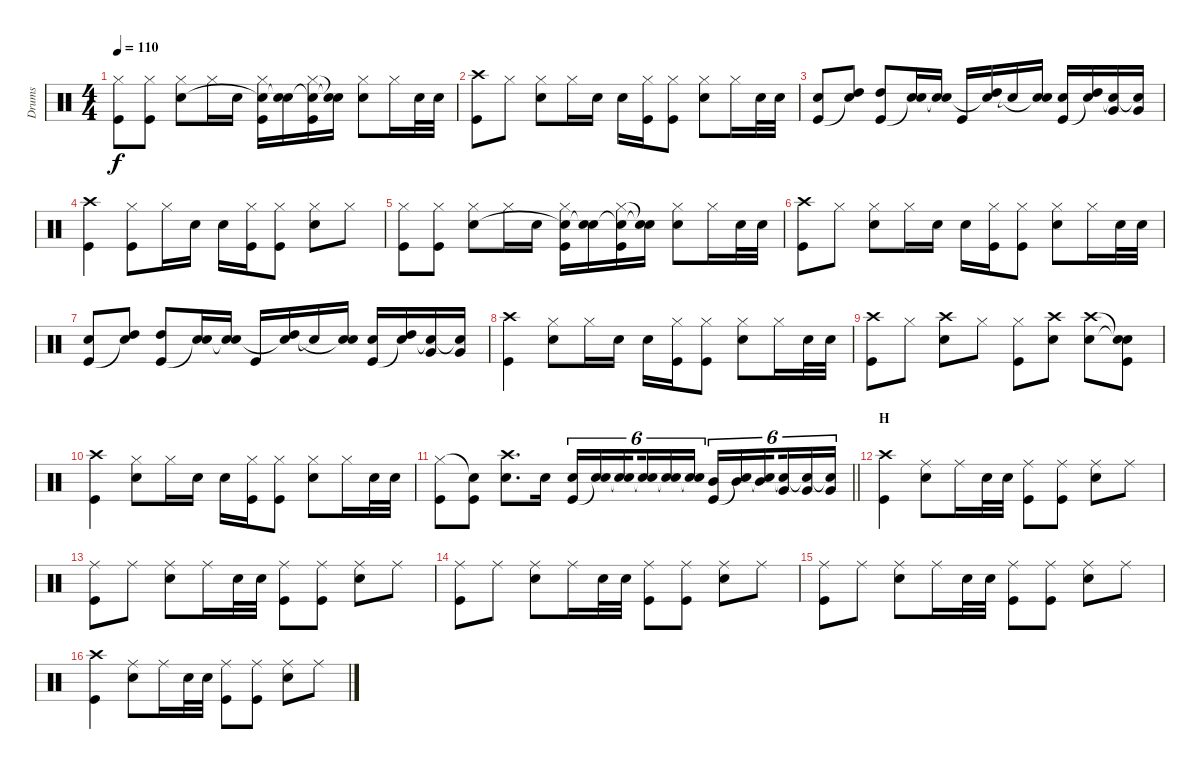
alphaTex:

\track ("Drums" "Drums") {instrument percussion}
\staff {score}
\articulation defaults
\ts (4 4)
\tempo 110
\clef neutral
\ks c
("Hi-Hat (closed)" "Kick (hit)").8{dy f} ("Hi-Hat (closed)" "Kick (hit)").8 ("Hi-Hat (closed)" "Snare (hit) 2").8 "Hi-Hat (closed)".16 "Snare (hit) 2".16 ("Hi-Hat (closed)" "Snare (hit)"{t} "Kick (hit)").16 ("Snare (hit) 2" "Snare (hit)"{t}).16 ("Hi-Hat (closed)" "Snare (hit)"{t} "Kick (hit)").16 ("Snare (hit)"{t} "Snare (hit)"{t}).16 ("Hi-Hat (closed)" "Snare (hit) 2").8 "Hi-Hat (closed)".16 "Snare (hit) 2".32 "Snare (hit) 2".32 |
("Crash high (hit)" "Kick (hit)").8 "Hi-Hat (closed)".8 ("Hi-Hat (closed)" "Snare (hit) 2").8 "Hi-Hat (closed)".16 "Snare (hit) 2".16 "Snare (hit) 2".16 ("Hi-Hat (closed)" "Kick (hit)").16 ("Hi-Hat (closed)" "Kick (hit)").8 ("Hi-Hat (closed)" "Snare (hit) 2").8 "Hi-Hat (closed)".16 "Snare (hit) 2".32 "Snare (hit) 2".32 |
("Snare (hit) 2" "Kick (hit)").8 ("High Tom (hit)" "Snare (hit)"{t}).8 ("High Tom (hit)" "Kick (hit)").8 ("Snare (hit) 2" "Snare (hit)"{t}).16 ("Snare (hit) 2" "Snare (hit)"{t}).16 "Kick (hit)".16 ("High Tom (hit)" "Snare (hit)"{t}).16 "Snare (hit)"{t}.16 ("Snare (hit) 2" "Snare (hit)"{t}).16 ("Snare (hit) 2" "Kick (hit)").16 ("High Tom (hit)" "Snare (hit)"{t}).16 ("Very Low Tom (hit)" "Snare (hit)"{t}).16 ("Very Low Tom (hit)" "Snare (hit)"{t}).16 |
("Crash high (hit)" "Kick (hit)").4 ("Hi-Hat (closed)" "Kick (hit)").8 "Hi-Hat (closed)".16 "Snare (hit) 2".16 "Snare (hit) 2".16 ("Hi-Hat (closed)" "Kick (hit)").16 ("Hi-Hat (closed)" "Kick (hit)").8 ("Hi-Hat (closed)" "Snare (hit) 2").8 "Hi-Hat (closed)".8 |
("Hi-Hat (closed)" "Kick (hit)").8 ("Hi-Hat (closed)" "Kick (hit)").8 ("Hi-Hat (closed)" "Snare (hit) 2").8 "Hi-Hat (closed)".16 "Snare (hit) 2".16 ("Hi-Hat (closed)" "Snare (hit)"{t} "Kick (hit)").16 ("Snare (hit) 2" "Snare (hit)"{t}).16 ("Hi-Hat (closed)" "Snare (hit)"{t} "Kick (hit)").16 ("Snare (hit)"{t} "Snare (hit)"{t}).16 ("Hi-Hat (closed)" "Snare (hit) 2").8 "Hi-Hat (closed)".16 "Snare (hit) 2".32 "Snare (hit) 2".32 |
("Crash high (hit)" "Kick (hit)").8 "Hi-Hat (closed)".8 ("Hi-Hat (closed)" "Snare (hit) 2").8 "Hi-Hat (closed)".16 "Snare (hit) 2".16 "Snare (hit) 2".16 ("Hi-Hat (closed)" "Kick (hit)").16 ("Hi-Hat (closed)" "Kick (hit)").8 ("Hi-Hat (closed)" "Snare (hit) 2").8 "Hi-Hat (closed)".16 "Snare (hit) 2".32 "Snare (hit) 2".32 |
("Snare (hit) 2" "Kick (hit)").8 ("High Tom (hit)" "Snare (hit)"{t}).8 ("High Tom (hit)" "Kick (hit)").8 ("Snare (hit) 2" "Snare (hit)"{t}).16 ("Snare (hit) 2" "Snare (hit)"{t}).16 "Kick (hit)".16 ("High Tom (hit)" "Snare (hit)"{t}).16 "Snare (hit)"{t}.16 ("Snare (hit) 2" "Snare (hit)"{t}).16 ("Snare (hit) 2" "Kick (hit)").16 ("High Tom (hit)" "Snare (hit)"{t}).16 ("Very Low Tom (hit)" "Snare (hit)"{t}).16 ("Very Low Tom (hit)" "Snare (hit)"{t}).16 |
("Crash high (hit)" "Kick (hit)").4 ("Hi-Hat (closed)" "Snare (hit) 2").8 "Hi-Hat (closed)".16 "Snare (hit) 2".16 "Snare (hit) 2".16 ("Hi-Hat (closed)" "Kick (hit)").16 ("Hi-Hat (closed)" "Kick (hit)").8 ("Hi-Hat (closed)" "Snare (hit) 2").8 "Hi-Hat (closed)".16 "Snare (hit) 2".32 "Snare (hit) 2".32 |
("Crash high (hit)" "Kick (hit)").8 "Hi-Hat (closed)".8 ("Crash high (hit)" "Snare (hit) 2").8 "Hi-Hat (closed)".8 ("Hi-Hat (closed)" "Kick (hit)").8 ("Crash high (hit)" "Snare (hit) 2").8 ("Crash high (hit)" "Snare (hit) 2").8 ("Snare (hit)"{t} "Snare (hit) 2"{t} "Kick (hit)").8 |
("Crash high (hit)" "Kick (hit)").4 ("Hi-Hat (closed)" "Snare (hit) 2").8 "Hi-Hat (closed)".16 "Snare (hit) 2".16 "Snare (hit) 2".16 ("Hi-Hat (closed)" "Kick (hit)").16 ("Hi-Hat (closed)" "Kick (hit)").8 ("Hi-Hat (closed)" "Snare (hit) 2").8 "Hi-Hat (closed)".16 "Snare (hit) 2".32 "Snare (hit) 2".32 |
\barLineRight lightlight
("Hi-Hat (closed)" "Kick (hit)").8 ("Snare (hit)"{t} "Kick (hit)").8 ("Crash high (hit)" "Snare (hit) 2").8{d} "Snare (hit) 2".16 ("Snare (hit) 2" "Kick (hit)").16{tu (6 4)} ("Snare (hit) 2" "Snare (hit)"{t}).16{tu (6 4)} ("Snare (hit) 2" "Snare (hit)"{t}).16{tu (6 4) beam splitsecondary} ("Snare (hit) 2" "Snare (hit)"{t}).16{tu (6 4)} ("Snare (hit) 2" "Snare (hit)"{t}).16{tu (6 4)} ("Snare (hit) 2" "Snare (hit)"{t}).16{tu (6 4)} ("Mid Tom (hit)" "Kick (hit)").16{tu (6 4)} ("Mid Tom (hit)" "Snare (hit)"{t}).16{tu (6 4)} ("Mid Tom (hit)" "Snare (hit)"{t}).16{tu (6 4) beam splitsecondary} ("Very Low Tom (hit)" "Snare (hit)"{t}).16{tu (6 4)} ("Very Low Tom (hit)" "Snare (hit)"{t}).16{tu (6 4)} ("Very Low Tom (hit)" "Snare (hit)"{t}).16{tu (6 4)} |
\section ("" "H")
("Crash high (hit)" "Kick (hit)").4 ("Ride (middle)" "Snare (hit) 2").8 "Ride (middle)".16 "Snare (hit) 2".32 "Snare (hit) 2".32 ("Ride (middle)" "Kick (hit)").8 ("Ride (middle)" "Kick (hit)").8 ("Ride (middle)" "Snare (hit) 2").8 "Ride (middle)".8 |
("Ride (middle)" "Kick (hit)").8 "Ride (middle)".8 ("Ride (middle)" "Snare (hit) 2").8 "Ride (middle)".16 "Snare (hit) 2".32 "Snare (hit) 2".32 ("Ride (middle)" "Kick (hit)").8 ("Ride (middle)" "Kick (hit)").8 ("Ride (middle)" "Snare (hit) 2").8 "Ride (middle)".8 |
("Ride (middle)" "Kick (hit)").8 "Ride (middle)".8 ("Ride (middle)" "Snare (hit) 2").8 "Ride (middle)".16 "Snare (hit) 2".32 "Snare (hit) 2".32 ("Ride (middle)" "Kick (hit)").8 ("Ride (middle)" "Kick (hit)").8 ("Ride (middle)" "Snare (hit) 2").8 "Ride (middle)".8 |
("Ride (middle)" "Kick (hit)").8 "Ride (middle)".8 ("Ride (middle)" "Snare (hit) 2").8 "Ride (middle)".16 "Snare (hit) 2".32 "Snare (hit) 2".32 ("Ride (middle)" "Kick (hit)").8 ("Ride (middle)" "Kick (hit)").8 ("Ride (middle)" "Snare (hit) 2").8 "Ride (middle)".8 |
("Crash high (hit)" "Kick (hit)").4 ("Ride (middle)" "Snare (hit) 2").8 "Ride (middle)".16 "Snare (hit) 2".32 "Snare (hit) 2".32 ("Ride (middle)" "Kick (hit)").8 ("Ride (middle)" "Kick (hit)").8 ("Ride (middle)" "Snare (hit) 2").8 "Ride (middle)".8
